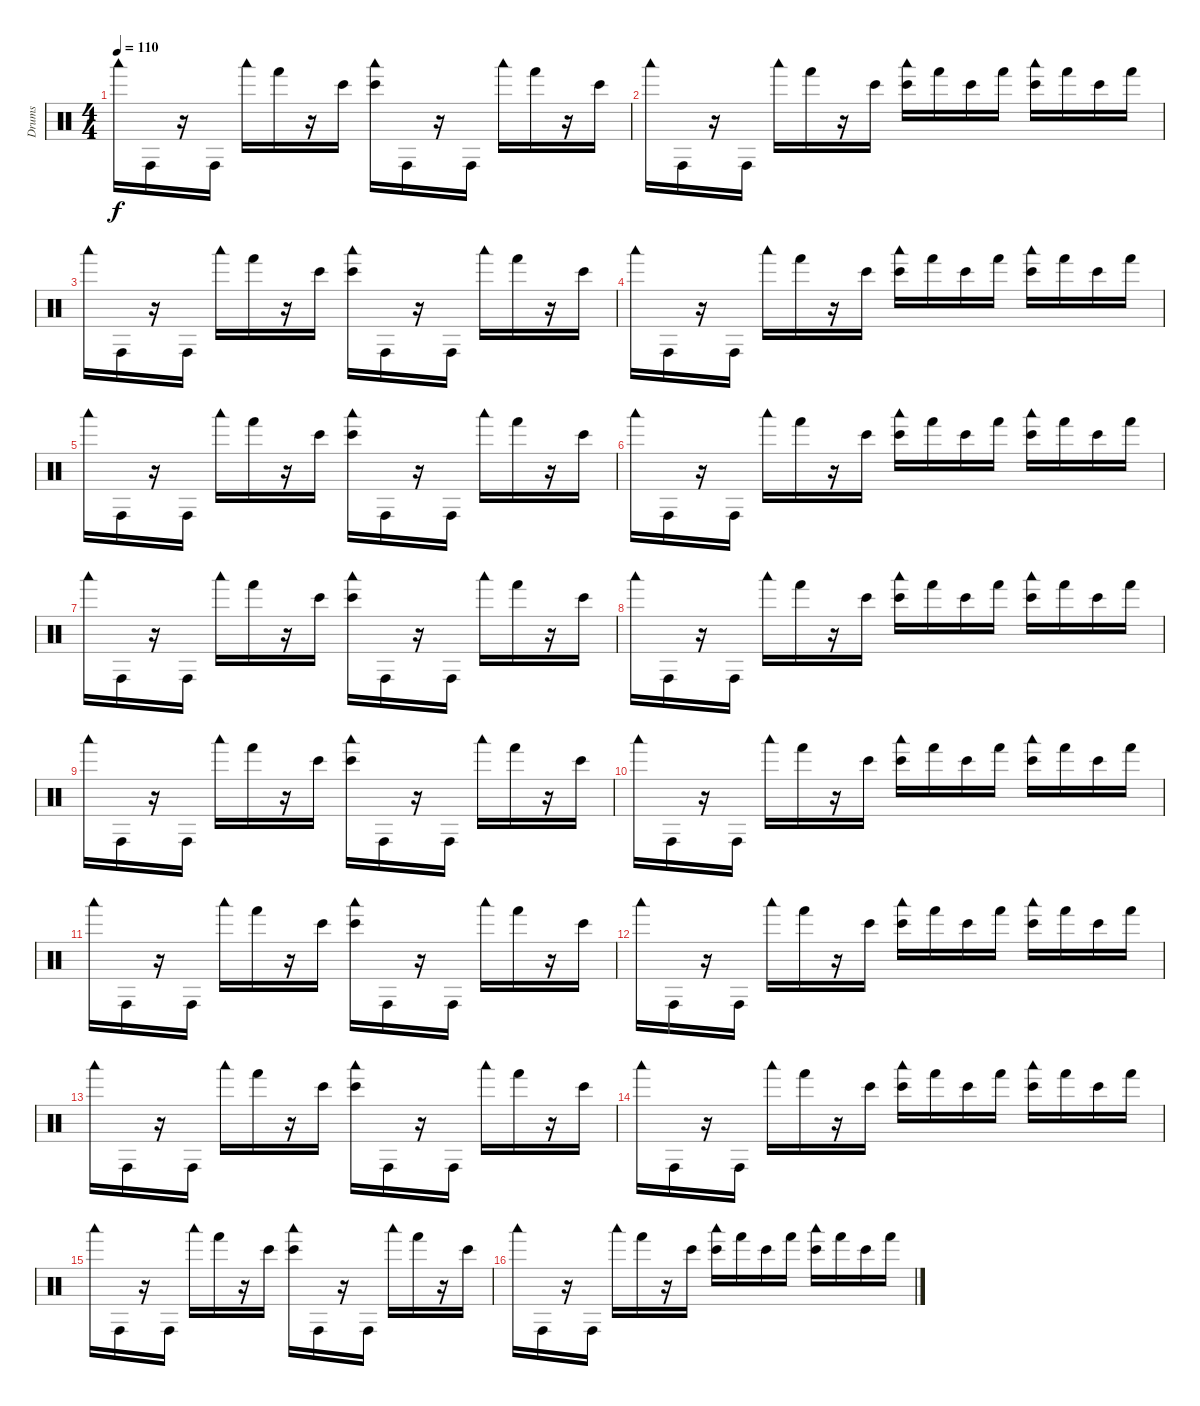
\track ("Drums" "Drums") {instrument percussion}
\staff {score}
\articulation defaults
\ts (4 4)
\tempo 110
\clef neutral
\ks c "Woodblock low (hit)".16{dy f} "Conga high (hit)".16
r.16 "Conga high (hit)".16 "Woodblock low (hit)".16 "Hand (hit)".16 r.16 "Bongo High (hit)".16 ("Woodblock low (hit)" "Bongo High (hit)").16 "Conga high (hit)".16 r.16 "Conga high (hit)".16 "Woodblock low (hit)".16 "Hand (hit)".16 r.16 "Bongo High (hit)".16 |
"Woodblock low (hit)".16 "Conga high (hit)".16 r.16 "Conga high (hit)".16 "Woodblock low (hit)".16 "Hand (hit)".16 r.16 "Bongo High (hit)".16 ("Woodblock low (hit)" "Bongo High (hit)").16 "Hand (hit)".16 "Bongo High (hit)".16 "Hand (hit)".16 ("Woodblock low (hit)" "Bongo High (hit)").16 "Hand (hit)".16 "Bongo High (hit)".16 "Hand (hit)".16 |
"Woodblock low (hit)".16 "Conga high (hit)".16 r.16 "Conga high (hit)".16 "Woodblock low (hit)".16 "Hand (hit)".16 r.16 "Bongo High (hit)".16 ("Woodblock low (hit)" "Bongo High (hit)").16 "Conga high (hit)".16 r.16 "Conga high (hit)".16 "Woodblock low (hit)".16 "Hand (hit)".16 r.16 "Bongo High (hit)".16 |
"Woodblock low (hit)".16 "Conga high (hit)".16 r.16 "Conga high (hit)".16 "Woodblock low (hit)".16 "Hand (hit)".16 r.16 "Bongo High (hit)".16 ("Woodblock low (hit)" "Bongo High (hit)").16 "Hand (hit)".16 "Bongo High (hit)".16 "Hand (hit)".16 ("Woodblock low (hit)" "Bongo High (hit)").16 "Hand (hit)".16 "Bongo High (hit)".16 "Hand (hit)".16 |
"Woodblock low (hit)".16 "Conga high (hit)".16 r.16 "Conga high (hit)".16 "Woodblock low (hit)".16 "Hand (hit)".16 r.16 "Bongo High (hit)".16 ("Woodblock low (hit)" "Bongo High (hit)").16 "Conga high (hit)".16 r.16 "Conga high (hit)".16 "Woodblock low (hit)".16 "Hand (hit)".16 r.16 "Bongo High (hit)".16 |
"Woodblock low (hit)".16 "Conga high (hit)".16 r.16 "Conga high (hit)".16 "Woodblock low (hit)".16 "Hand (hit)".16 r.16 "Bongo High (hit)".16 ("Woodblock low (hit)" "Bongo High (hit)").16 "Hand (hit)".16 "Bongo High (hit)".16 "Hand (hit)".16 ("Woodblock low (hit)" "Bongo High (hit)").16 "Hand (hit)".16 "Bongo High (hit)".16 "Hand (hit)".16 |
"Woodblock low (hit)".16 "Conga high (hit)".16 r.16 "Conga high (hit)".16 "Woodblock low (hit)".16 "Hand (hit)".16 r.16 "Bongo High (hit)".16 ("Woodblock low (hit)" "Bongo High (hit)").16 "Conga high (hit)".16 r.16 "Conga high (hit)".16 "Woodblock low (hit)".16 "Hand (hit)".16 r.16 "Bongo High (hit)".16 |
"Woodblock low (hit)".16 "Conga high (hit)".16 r.16 "Conga high (hit)".16 "Woodblock low (hit)".16 "Hand (hit)".16 r.16 "Bongo High (hit)".16 ("Woodblock low (hit)" "Bongo High (hit)").16 "Hand (hit)".16 "Bongo High (hit)".16 "Hand (hit)".16 ("Woodblock low (hit)" "Bongo High (hit)").16 "Hand (hit)".16 "Bongo High (hit)".16 "Hand (hit)".16 |
"Woodblock low (hit)".16 "Conga high (hit)".16 r.16 "Conga high (hit)".16 "Woodblock low (hit)".16 "Hand (hit)".16 r.16 "Bongo High (hit)".16 ("Woodblock low (hit)" "Bongo High (hit)").16 "Conga high (hit)".16 r.16 "Conga high (hit)".16 "Woodblock low (hit)".16 "Hand (hit)".16 r.16 "Bongo High (hit)".16 |
"Woodblock low (hit)".16 "Conga high (hit)".16 r.16 "Conga high (hit)".16 "Woodblock low (hit)".16 "Hand (hit)".16 r.16 "Bongo High (hit)".16 ("Woodblock low (hit)" "Bongo High (hit)").16 "Hand (hit)".16 "Bongo High (hit)".16 "Hand (hit)".16 ("Woodblock low (hit)" "Bongo High (hit)").16 "Hand (hit)".16 "Bongo High (hit)".16 "Hand (hit)".16 |
"Woodblock low (hit)".16 "Conga high (hit)".16 r.16 "Conga high (hit)".16 "Woodblock low (hit)".16 "Hand (hit)".16 r.16 "Bongo High (hit)".16 ("Woodblock low (hit)" "Bongo High (hit)").16 "Conga high (hit)".16 r.16 "Conga high (hit)".16 "Woodblock low (hit)".16 "Hand (hit)".16 r.16 "Bongo High (hit)".16 |
"Woodblock low (hit)".16 "Conga high (hit)".16 r.16 "Conga high (hit)".16 "Woodblock low (hit)".16 "Hand (hit)".16 r.16 "Bongo High (hit)".16 ("Woodblock low (hit)" "Bongo High (hit)").16 "Hand (hit)".16 "Bongo High (hit)".16 "Hand (hit)".16 ("Woodblock low (hit)" "Bongo High (hit)").16 "Hand (hit)".16 "Bongo High (hit)".16 "Hand (hit)".16 |
"Woodblock low (hit)".16 "Conga high (hit)".16 r.16 "Conga high (hit)".16 "Woodblock low (hit)".16 "Hand (hit)".16 r.16 "Bongo High (hit)".16 ("Woodblock low (hit)" "Bongo High (hit)").16 "Conga high (hit)".16 r.16 "Conga high (hit)".16 "Woodblock low (hit)".16 "Hand (hit)".16 r.16 "Bongo High (hit)".16 |
"Woodblock low (hit)".16 "Conga high (hit)".16 r.16 "Conga high (hit)".16 "Woodblock low (hit)".16 "Hand (hit)".16 r.16 "Bongo High (hit)".16 ("Woodblock low (hit)" "Bongo High (hit)").16 "Hand (hit)".16 "Bongo High (hit)".16 "Hand (hit)".16 ("Woodblock low (hit)" "Bongo High (hit)").16 "Hand (hit)".16 "Bongo High (hit)".16 "Hand (hit)".16 |
"Woodblock low (hit)".16 "Conga high (hit)".16 r.16 "Conga high (hit)".16 "Woodblock low (hit)".16 "Hand (hit)".16 r.16 "Bongo High (hit)".16 ("Woodblock low (hit)" "Bongo High (hit)").16 "Conga high (hit)".16 r.16 "Conga high (hit)".16 "Woodblock low (hit)".16 "Hand (hit)".16 r.16 "Bongo High (hit)".16 |
"Woodblock low (hit)".16 "Conga high (hit)".16 r.16 "Conga high (hit)".16 "Woodblock low (hit)".16 "Hand (hit)".16 r.16 "Bongo High (hit)".16 ("Woodblock low (hit)" "Bongo High (hit)").16 "Hand (hit)".16 "Bongo High (hit)".16 "Hand (hit)".16 ("Woodblock low (hit)" "Bongo High (hit)").16 "Hand (hit)".16 "Bongo High (hit)".16 "Hand (hit)".16
